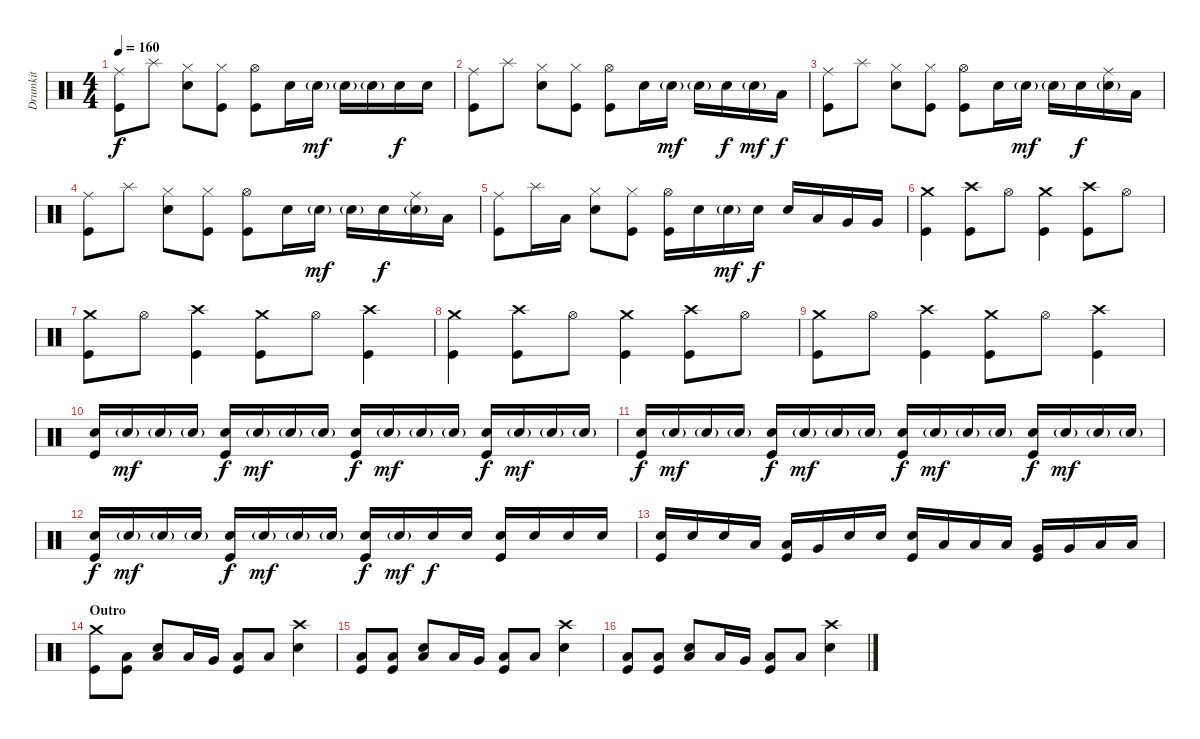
\track ("Drumkit" "Drumkit") {instrument percussion}
\staff {score}
\articulation defaults
\ts (4 4)
\tempo 160
\clef neutral
\ks c
("Ride (middle)" "Kick (hit)").8{dy f} "Splash (hit)".8 ("Hi-Hat (closed)" "Snare (hit) 2").8 ("Hi-Hat (closed)" "Kick (hit)").8 ("Hi-Hat (open)" "Kick (hit)").8 "Snare (hit) 2".16 "Snare (hit) 2"{g}.16{dy mf} "Snare (hit) 2"{g}.16 "Snare (hit) 2"{g}.16 "Snare (hit) 2".16{dy f} "Snare (hit) 2".16 |
("Ride (middle)" "Kick (hit)").8 "Splash (hit)".8 ("Hi-Hat (closed)" "Snare (hit) 2").8 ("Hi-Hat (closed)" "Kick (hit)").8 ("Hi-Hat (open)" "Kick (hit)").8 "Snare (hit) 2".16 "Snare (hit) 2"{g}.16{dy mf} "Snare (hit) 2"{g}.16 "Snare (hit) 2".16{dy f} "Snare (hit) 2"{g}.16{dy mf} "Low Tom (hit)".16{dy f} |
("Ride (middle)" "Kick (hit)").8 "Splash (hit)".8 ("Hi-Hat (closed)" "Snare (hit) 2").8 ("Hi-Hat (closed)" "Kick (hit)").8 ("Hi-Hat (open)" "Kick (hit)").8 "Snare (hit) 2".16 "Snare (hit) 2"{g}.16{dy mf} "Snare (hit) 2"{g}.16 "Snare (hit) 2".16{dy f} ("Ride (middle)" "Snare (hit) 2"{g}).16 "Low Tom (hit)".16 |
("Ride (middle)" "Kick (hit)").8 "Splash (hit)".8 ("Hi-Hat (closed)" "Snare (hit) 2").8 ("Hi-Hat (closed)" "Kick (hit)").8 ("Hi-Hat (open)" "Kick (hit)").8 "Snare (hit) 2".16 "Snare (hit) 2"{g}.16{dy mf} "Snare (hit) 2"{g}.16 "Snare (hit) 2".16{dy f} ("Ride (middle)" "Snare (hit) 2"{g}).16 "Low Tom (hit)".16 |
("Ride (middle)" "Kick (hit)").8 "Splash (hit)".16 "Low Tom (hit)".16 ("Hi-Hat (closed)" "Snare (hit) 2").8 ("Hi-Hat (closed)" "Kick (hit)").8 ("Hi-Hat (open)" "Kick (hit)").16 "Snare (hit) 2".16 "Snare (hit) 2"{g}.16{dy mf} "Snare (hit) 2".16{dy f} "Snare (hit) 2".16 "Low Tom (hit)".16 "Very Low Tom (hit)".16 "Very Low Tom (hit)".16 |
("Crash medium (hit)" "Kick (hit)").4 ("Crash high (hit)" "Kick (hit)").8 "Hi-Hat (open)".8 ("Crash medium (hit)" "Kick (hit)").4 ("Crash high (hit)" "Kick (hit)").8 "Hi-Hat (open)".8 |
("Crash medium (hit)" "Kick (hit)").8 "Hi-Hat (open)".8 ("Crash high (hit)" "Kick (hit)").4 ("Crash medium (hit)" "Kick (hit)").8 "Hi-Hat (open)".8 ("Crash high (hit)" "Kick (hit)").4 |
("Crash medium (hit)" "Kick (hit)").4 ("Crash high (hit)" "Kick (hit)").8 "Hi-Hat (open)".8 ("Crash medium (hit)" "Kick (hit)").4 ("Crash high (hit)" "Kick (hit)").8 "Hi-Hat (open)".8 |
("Crash medium (hit)" "Kick (hit)").8 "Hi-Hat (open)".8 ("Crash high (hit)" "Kick (hit)").4 ("Crash medium (hit)" "Kick (hit)").8 "Hi-Hat (open)".8 ("Crash high (hit)" "Kick (hit)").4 |
("Snare (hit) 2" "Kick (hit)").16 "Snare (hit) 2"{g}.16{dy mf} "Snare (hit) 2"{g}.16 "Snare (hit) 2"{g}.16 ("Snare (hit) 2" "Kick (hit)").16{dy f} "Snare (hit) 2"{g}.16{dy mf} "Snare (hit) 2"{g}.16 "Snare (hit) 2"{g}.16 ("Snare (hit) 2" "Kick (hit)").16{dy f} "Snare (hit) 2"{g}.16{dy mf} "Snare (hit) 2"{g}.16 "Snare (hit) 2"{g}.16 ("Snare (hit) 2" "Kick (hit)").16{dy f} "Snare (hit) 2"{g}.16{dy mf} "Snare (hit) 2"{g}.16 "Snare (hit) 2"{g}.16 |
("Snare (hit) 2" "Kick (hit)").16{dy f} "Snare (hit) 2"{g}.16{dy mf} "Snare (hit) 2"{g}.16 "Snare (hit) 2"{g}.16 ("Snare (hit) 2" "Kick (hit)").16{dy f} "Snare (hit) 2"{g}.16{dy mf} "Snare (hit) 2"{g}.16 "Snare (hit) 2"{g}.16 ("Snare (hit) 2" "Kick (hit)").16{dy f} "Snare (hit) 2"{g}.16{dy mf} "Snare (hit) 2"{g}.16 "Snare (hit) 2"{g}.16 ("Snare (hit) 2" "Kick (hit)").16{dy f} "Snare (hit) 2"{g}.16{dy mf} "Snare (hit) 2"{g}.16 "Snare (hit) 2"{g}.16 |
("Snare (hit) 2" "Kick (hit)").16{dy f} "Snare (hit) 2"{g}.16{dy mf} "Snare (hit) 2"{g}.16 "Snare (hit) 2"{g}.16 ("Snare (hit) 2" "Kick (hit)").16{dy f} "Snare (hit) 2"{g}.16{dy mf} "Snare (hit) 2"{g}.16 "Snare (hit) 2"{g}.16 ("Snare (hit) 2" "Kick (hit)").16{dy f} "Snare (hit) 2"{g}.16{dy mf} "Snare (hit) 2".16{dy f} "Snare (hit) 2".16 ("Snare (hit) 2" "Kick (hit)").16 "Snare (hit) 2".16 "Snare (hit) 2".16 "Snare (hit) 2".16 |
("Snare (hit) 2" "Kick (hit)").16 "Snare (hit) 2".16 "Snare (hit) 2".16 "Low Tom (hit)".16 ("Low Tom (hit)" "Kick (hit)").16 "Very Low Tom (hit)".16 "Snare (hit) 2".16 "Snare (hit) 2".16 ("Snare (hit) 2" "Kick (hit)").16 "Low Tom (hit)".16 "Low Tom (hit)".16 "Low Tom (hit)".16 ("Very Low Tom (hit)" "Kick (hit)").16 "Very Low Tom (hit)".16 "Low Floor Tom (hit)".16 "Low Floor Tom (hit)".16 |
\section ("" "Outro")
("Crash medium (hit)" "Kick (hit)").8 ("Low Floor Tom (hit)" "Kick (hit)").8 ("Low Floor Tom (hit)" "Snare (hit) 2").8 "Low Tom (hit)".16 "Very Low Tom (hit)".16 ("Low Floor Tom (hit)" "Kick (hit)").8 "Low Floor Tom (hit)".8 ("Crash high (hit)" "Snare (hit) 2").4 |
("Low Floor Tom (hit)" "Kick (hit)").8 ("Low Floor Tom (hit)" "Kick (hit)").8 ("Low Floor Tom (hit)" "Snare (hit) 2").8 "Low Tom (hit)".16 "Very Low Tom (hit)".16 ("Low Floor Tom (hit)" "Kick (hit)").8 "Low Floor Tom (hit)".8 ("Crash high (hit)" "Snare (hit) 2").4 |
("Low Floor Tom (hit)" "Kick (hit)").8 ("Low Floor Tom (hit)" "Kick (hit)").8 ("Low Floor Tom (hit)" "Snare (hit) 2").8 "Low Tom (hit)".16 "Very Low Tom (hit)".16 ("Low Floor Tom (hit)" "Kick (hit)").8 "Low Floor Tom (hit)".8 ("Crash high (hit)" "Snare (hit) 2").4
